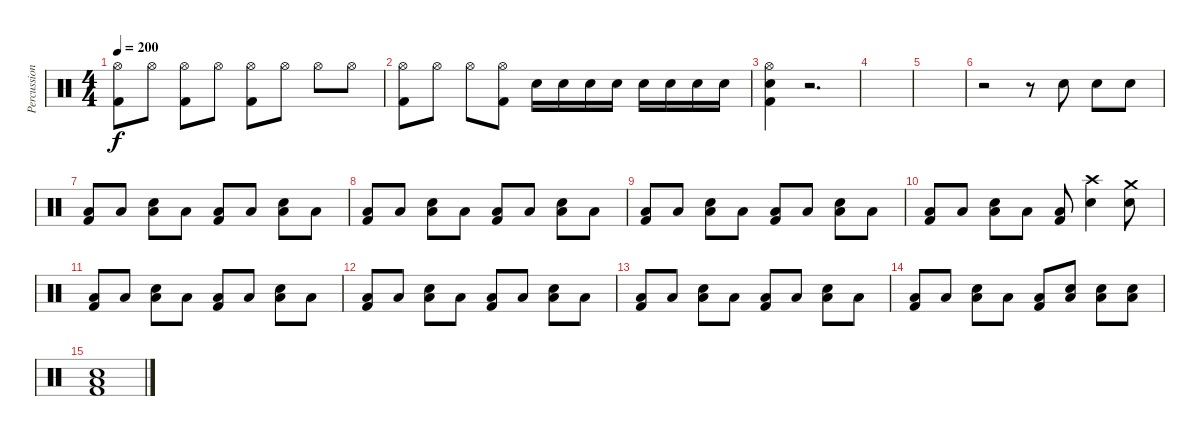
\track ("Percussion" "Percussion") {instrument percussion}
\staff {score}
\articulation defaults
\ts (4 4)
\tempo 200
\clef neutral
\ks c
("Hi-Hat (open)" "Kick (hit) 2").8{dy f} "Hi-Hat (open)".8 ("Hi-Hat (open)" "Kick (hit) 2").8 "Hi-Hat (open)".8 ("Hi-Hat (open)" "Kick (hit) 2").8 "Hi-Hat (open)".8 "Hi-Hat (open)".8 "Hi-Hat (open)".8 |
("Hi-Hat (open)" "Kick (hit) 2").8 "Hi-Hat (open)".8 "Hi-Hat (open)".8 ("Hi-Hat (open)" "Kick (hit) 2").8 "Electric Snare (hit)".16 "Electric Snare (hit)".16 "Electric Snare (hit)".16 "Electric Snare (hit)".16 "Electric Snare (hit)".16 "Electric Snare (hit)".16 "Electric Snare (hit)".16 "Electric Snare (hit)".16 |
("Hi-Hat (open)" "Electric Snare (hit)" "Kick (hit) 2").4 r.2{d} |
|
|
r.2 r.8 "Electric Snare (hit)".8 "Electric Snare (hit)".8 "Electric Snare (hit)".8 |
("Low Floor Tom (hit)" "Kick (hit) 2").8 "Low Floor Tom (hit)".8 ("Electric Snare (hit)" "Low Floor Tom (hit)").8 "Low Floor Tom (hit)".8 ("Low Floor Tom (hit)" "Kick (hit) 2").8 "Low Floor Tom (hit)".8 ("Electric Snare (hit)" "Low Floor Tom (hit)").8 "Low Floor Tom (hit)".8 |
("Low Floor Tom (hit)" "Kick (hit) 2").8 "Low Floor Tom (hit)".8 ("Electric Snare (hit)" "Low Floor Tom (hit)").8 "Low Floor Tom (hit)".8 ("Low Floor Tom (hit)" "Kick (hit) 2").8 "Low Floor Tom (hit)".8 ("Electric Snare (hit)" "Low Floor Tom (hit)").8 "Low Floor Tom (hit)".8 |
("Low Floor Tom (hit)" "Kick (hit) 2").8 "Low Floor Tom (hit)".8 ("Electric Snare (hit)" "Low Floor Tom (hit)").8 "Low Floor Tom (hit)".8 ("Low Floor Tom (hit)" "Kick (hit) 2").8 "Low Floor Tom (hit)".8 ("Electric Snare (hit)" "Low Floor Tom (hit)").8 "Low Floor Tom (hit)".8 |
("Low Floor Tom (hit)" "Kick (hit) 2").8 "Low Floor Tom (hit)".8 ("Electric Snare (hit)" "Low Floor Tom (hit)").8 "Low Floor Tom (hit)".8 ("Low Floor Tom (hit)" "Kick (hit) 2").8 ("Crash high (hit)" "Electric Snare (hit)").4 ("Crash medium (hit)" "Electric Snare (hit)").8 |
("Low Floor Tom (hit)" "Kick (hit) 2").8 "Low Floor Tom (hit)".8 ("Electric Snare (hit)" "Low Floor Tom (hit)").8 "Low Floor Tom (hit)".8 ("Low Floor Tom (hit)" "Kick (hit) 2").8 "Low Floor Tom (hit)".8 ("Electric Snare (hit)" "Low Floor Tom (hit)").8 "Low Floor Tom (hit)".8 |
("Low Floor Tom (hit)" "Kick (hit) 2").8 "Low Floor Tom (hit)".8 ("Electric Snare (hit)" "Low Floor Tom (hit)").8 "Low Floor Tom (hit)".8 ("Low Floor Tom (hit)" "Kick (hit) 2").8 "Low Floor Tom (hit)".8 ("Electric Snare (hit)" "Low Floor Tom (hit)").8 "Low Floor Tom (hit)".8 |
("Low Floor Tom (hit)" "Kick (hit) 2").8 "Low Floor Tom (hit)".8 ("Electric Snare (hit)" "Low Floor Tom (hit)").8 "Low Floor Tom (hit)".8 ("Low Floor Tom (hit)" "Kick (hit) 2").8 "Low Floor Tom (hit)".8 ("Electric Snare (hit)" "Low Floor Tom (hit)").8 "Low Floor Tom (hit)".8 |
("Low Floor Tom (hit)" "Kick (hit) 2").8 "Low Floor Tom (hit)".8 ("Electric Snare (hit)" "Low Floor Tom (hit)").8 "Low Floor Tom (hit)".8 ("Low Floor Tom (hit)" "Kick (hit) 2").8 ("Electric Snare (hit)" "Low Floor Tom (hit)").8 ("Electric Snare (hit)" "Low Floor Tom (hit)").8 ("Electric Snare (hit)" "Low Floor Tom (hit)").8 |
("Electric Snare (hit)" "Low Floor Tom (hit)" "Kick (hit) 2").1
